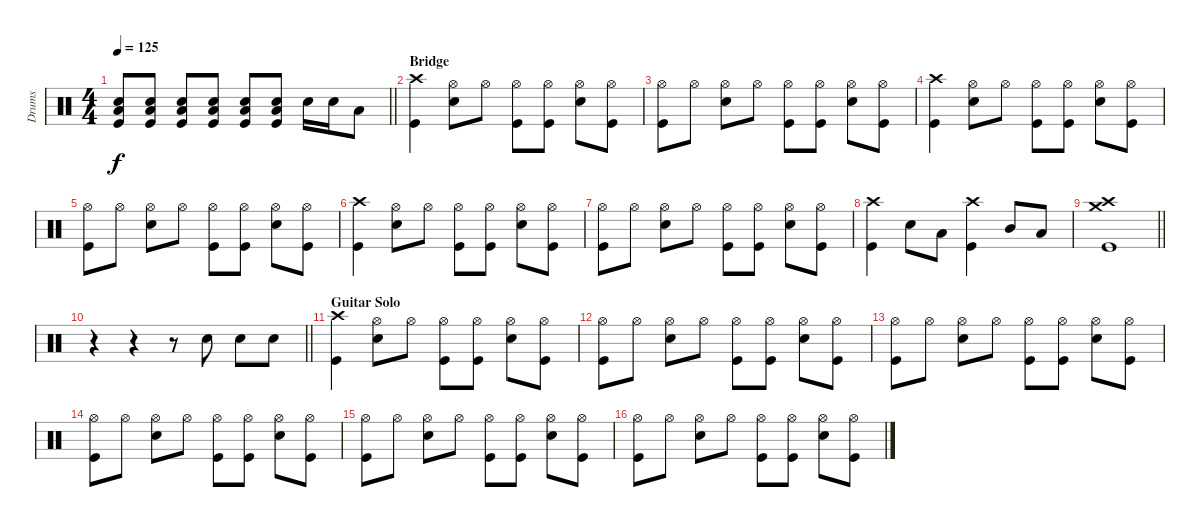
\track ("Drums" "Drums") {instrument percussion}
\staff {score}
\articulation defaults
\ts (4 4)
\tempo 125
\clef neutral
\barLineRight lightlight
\ks c
("Electric Snare (hit)" "Low Tom (hit)" "Kick (hit)").8{dy f} ("Electric Snare (hit)" "Low Tom (hit)" "Kick (hit)").8 ("Electric Snare (hit)" "Low Tom (hit)" "Kick (hit)").8 ("Electric Snare (hit)" "Low Tom (hit)" "Kick (hit)").8 ("Electric Snare (hit)" "Low Tom (hit)" "Kick (hit)").8 ("Electric Snare (hit)" "Low Tom (hit)" "Kick (hit)").8 "Electric Snare (hit)".16 "Electric Snare (hit)".16 "Low Tom (hit)".8 |
\section ("" "Bridge")
("Crash high (hit)" "Kick (hit)").4 ("Hi-Hat (open)" "Electric Snare (hit)").8 "Hi-Hat (open)".8 ("Hi-Hat (open)" "Kick (hit)").8 ("Hi-Hat (open)" "Kick (hit)").8 ("Hi-Hat (open)" "Electric Snare (hit)").8 ("Hi-Hat (open)" "Kick (hit)").8 |
("Hi-Hat (open)" "Kick (hit)").8 "Hi-Hat (open)".8 ("Hi-Hat (open)" "Electric Snare (hit)").8 "Hi-Hat (open)".8 ("Hi-Hat (open)" "Kick (hit)").8 ("Hi-Hat (open)" "Kick (hit)").8 ("Hi-Hat (open)" "Electric Snare (hit)").8 ("Hi-Hat (open)" "Kick (hit)").8 |
("Crash high (hit)" "Kick (hit)").4 ("Hi-Hat (open)" "Electric Snare (hit)").8 "Hi-Hat (open)".8 ("Hi-Hat (open)" "Kick (hit)").8 ("Hi-Hat (open)" "Kick (hit)").8 ("Hi-Hat (open)" "Electric Snare (hit)").8 ("Hi-Hat (open)" "Kick (hit)").8 |
("Hi-Hat (open)" "Kick (hit)").8 "Hi-Hat (open)".8 ("Hi-Hat (open)" "Electric Snare (hit)").8 "Hi-Hat (open)".8 ("Hi-Hat (open)" "Kick (hit)").8 ("Hi-Hat (open)" "Kick (hit)").8 ("Hi-Hat (open)" "Electric Snare (hit)").8 ("Hi-Hat (open)" "Kick (hit)").8 |
("Crash high (hit)" "Kick (hit)").4 ("Hi-Hat (open)" "Electric Snare (hit)").8 "Hi-Hat (open)".8 ("Hi-Hat (open)" "Kick (hit)").8 ("Hi-Hat (open)" "Kick (hit)").8 ("Hi-Hat (open)" "Electric Snare (hit)").8 ("Hi-Hat (open)" "Kick (hit)").8 |
("Hi-Hat (open)" "Kick (hit)").8 "Hi-Hat (open)".8 ("Hi-Hat (open)" "Electric Snare (hit)").8 "Hi-Hat (open)".8 ("Hi-Hat (open)" "Kick (hit)").8 ("Hi-Hat (open)" "Kick (hit)").8 ("Hi-Hat (open)" "Electric Snare (hit)").8 ("Hi-Hat (open)" "Kick (hit)").8 |
("Crash high (hit)" "Kick (hit)").4 "Electric Snare (hit)".8 "Low Tom (hit)".8 ("Crash high (hit)" "Kick (hit)").4 "Mid Tom (hit)".8 "Low Tom (hit)".8 |
\barLineRight lightlight
("Crash high (hit)" "Crash medium (hit)" "Kick (hit)").1 |
\barLineRight lightlight
r.4 r.4 r.8 "Electric Snare (hit)".8 "Electric Snare (hit)".8 "Electric Snare (hit)".8 |
\section ("" "Guitar Solo")
("Crash high (hit)" "Kick (hit)").4 ("Hi-Hat (open)" "Electric Snare (hit)").8 "Hi-Hat (open)".8 ("Hi-Hat (open)" "Kick (hit)").8 ("Hi-Hat (open)" "Kick (hit)").8 ("Hi-Hat (open)" "Electric Snare (hit)").8 ("Hi-Hat (open)" "Kick (hit)").8 |
("Hi-Hat (open)" "Kick (hit)").8 "Hi-Hat (open)".8 ("Hi-Hat (open)" "Electric Snare (hit)").8 "Hi-Hat (open)".8 ("Hi-Hat (open)" "Kick (hit)").8 ("Hi-Hat (open)" "Kick (hit)").8 ("Hi-Hat (open)" "Electric Snare (hit)").8 ("Hi-Hat (open)" "Kick (hit)").8 |
("Hi-Hat (open)" "Kick (hit)").8 "Hi-Hat (open)".8 ("Hi-Hat (open)" "Electric Snare (hit)").8 "Hi-Hat (open)".8 ("Hi-Hat (open)" "Kick (hit)").8 ("Hi-Hat (open)" "Kick (hit)").8 ("Hi-Hat (open)" "Electric Snare (hit)").8 ("Hi-Hat (open)" "Kick (hit)").8 |
("Hi-Hat (open)" "Kick (hit)").8 "Hi-Hat (open)".8 ("Hi-Hat (open)" "Electric Snare (hit)").8 "Hi-Hat (open)".8 ("Hi-Hat (open)" "Kick (hit)").8 ("Hi-Hat (open)" "Kick (hit)").8 ("Hi-Hat (open)" "Electric Snare (hit)").8 ("Hi-Hat (open)" "Kick (hit)").8 |
("Hi-Hat (open)" "Kick (hit)").8 "Hi-Hat (open)".8 ("Hi-Hat (open)" "Electric Snare (hit)").8 "Hi-Hat (open)".8 ("Hi-Hat (open)" "Kick (hit)").8 ("Hi-Hat (open)" "Kick (hit)").8 ("Hi-Hat (open)" "Electric Snare (hit)").8 ("Hi-Hat (open)" "Kick (hit)").8 |
("Hi-Hat (open)" "Kick (hit)").8 "Hi-Hat (open)".8 ("Hi-Hat (open)" "Electric Snare (hit)").8 "Hi-Hat (open)".8 ("Hi-Hat (open)" "Kick (hit)").8 ("Hi-Hat (open)" "Kick (hit)").8 ("Hi-Hat (open)" "Electric Snare (hit)").8 ("Hi-Hat (open)" "Kick (hit)").8
